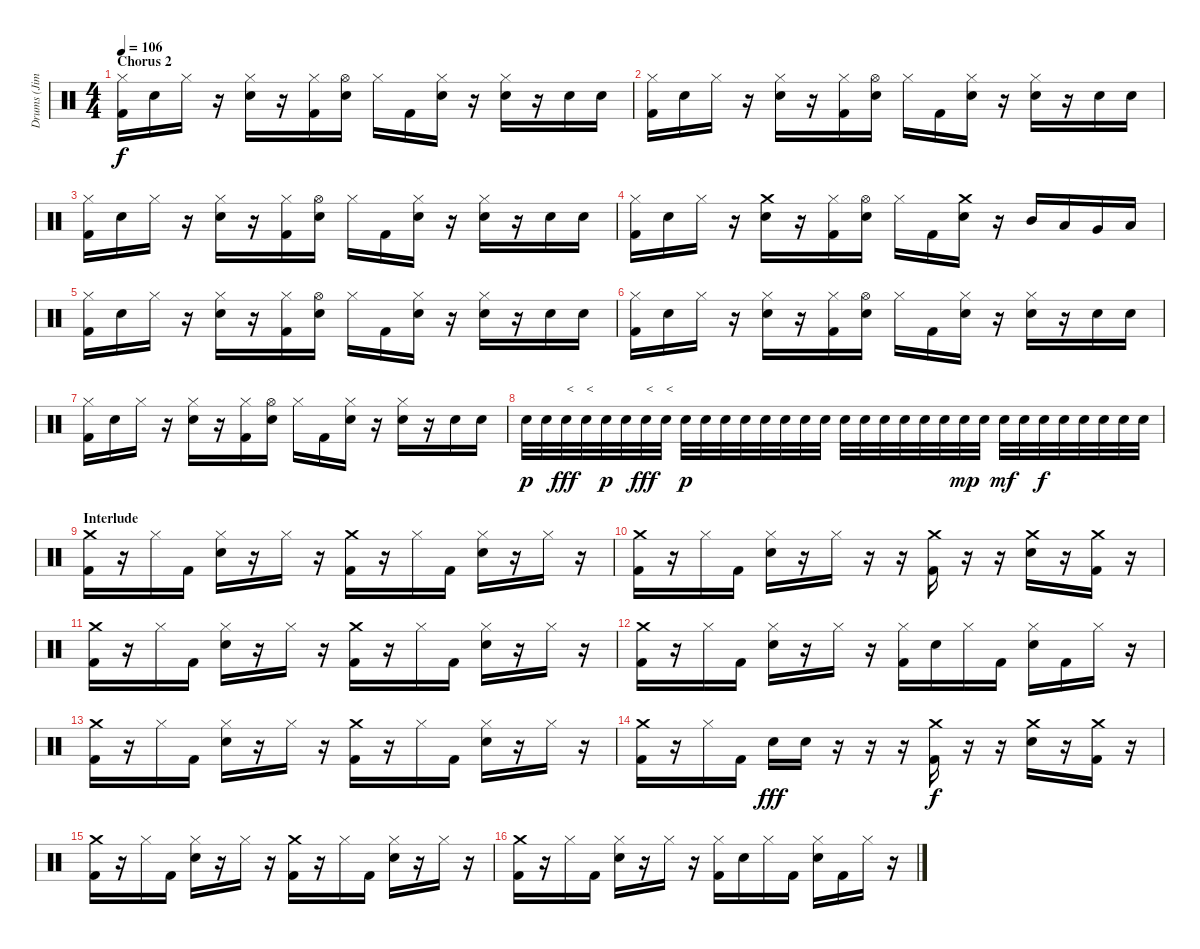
\track ("Drums (Jimmy)" "Drums (Jim") {instrument percussion}
\staff {score}
\articulation defaults
\ts (4 4)
\section ("" "Chorus 2")
\tempo 106
\clef neutral
\ks c
("Hi-Hat (closed)" "Kick (hit) 2").16{dy f} "Snare (hit) 2".16 "Hi-Hat (closed)".16 r.16 ("Hi-Hat (closed)" "Snare (hit) 2").16 r.16 ("Hi-Hat (closed)" "Kick (hit) 2").16 ("Hi-Hat (open)" "Snare (hit) 2").16 "Hi-Hat (closed)".16 "Kick (hit) 2".16 ("Hi-Hat (closed)" "Snare (hit) 2").16 r.16 ("Hi-Hat (closed)" "Snare (hit) 2").16 r.16 "Snare (hit) 2".16 "Snare (hit) 2".16 |
("Hi-Hat (closed)" "Kick (hit) 2").16 "Snare (hit) 2".16 "Hi-Hat (closed)".16 r.16 ("Hi-Hat (closed)" "Snare (hit) 2").16 r.16 ("Hi-Hat (closed)" "Kick (hit) 2").16 ("Hi-Hat (open)" "Snare (hit) 2").16 "Hi-Hat (closed)".16 "Kick (hit) 2".16 ("Hi-Hat (closed)" "Snare (hit) 2").16 r.16 ("Hi-Hat (closed)" "Snare (hit) 2").16 r.16 "Snare (hit) 2".16 "Snare (hit) 2".16 |
("Hi-Hat (closed)" "Kick (hit) 2").16 "Snare (hit) 2".16 "Hi-Hat (closed)".16 r.16 ("Hi-Hat (closed)" "Snare (hit) 2").16 r.16 ("Hi-Hat (closed)" "Kick (hit) 2").16 ("Hi-Hat (open)" "Snare (hit) 2").16 "Hi-Hat (closed)".16 "Kick (hit) 2".16 ("Hi-Hat (closed)" "Snare (hit) 2").16 r.16 ("Hi-Hat (closed)" "Snare (hit) 2").16 r.16 "Snare (hit) 2".16 "Snare (hit) 2".16 |
("Hi-Hat (closed)" "Kick (hit) 2").16 "Snare (hit) 2".16 "Hi-Hat (closed)".16 r.16 ("Crash medium (hit)" "Snare (hit) 2").16 r.16 ("Hi-Hat (closed)" "Kick (hit) 2").16 ("Hi-Hat (open)" "Snare (hit) 2").16 "Hi-Hat (closed)".16 "Kick (hit) 2".16 ("Crash medium (hit)" "Snare (hit) 2").16 r.16 "Mid Tom (hit)".16 "Low Tom (hit)".16 "Very Low Tom (hit)".16 "Low Floor Tom (hit)".16 |
("Hi-Hat (closed)" "Kick (hit) 2").16 "Snare (hit) 2".16 "Hi-Hat (closed)".16 r.16 ("Hi-Hat (closed)" "Snare (hit) 2").16 r.16 ("Hi-Hat (closed)" "Kick (hit) 2").16 ("Hi-Hat (open)" "Snare (hit) 2").16 "Hi-Hat (closed)".16 "Kick (hit) 2".16 ("Hi-Hat (closed)" "Snare (hit) 2").16 r.16 ("Hi-Hat (closed)" "Snare (hit) 2").16 r.16 "Snare (hit) 2".16 "Snare (hit) 2".16 |
("Hi-Hat (closed)" "Kick (hit) 2").16 "Snare (hit) 2".16 "Hi-Hat (closed)".16 r.16 ("Hi-Hat (closed)" "Snare (hit) 2").16 r.16 ("Hi-Hat (closed)" "Kick (hit) 2").16 ("Hi-Hat (open)" "Snare (hit) 2").16 "Hi-Hat (closed)".16 "Kick (hit) 2".16 ("Hi-Hat (closed)" "Snare (hit) 2").16 r.16 ("Hi-Hat (closed)" "Snare (hit) 2").16 r.16 "Snare (hit) 2".16 "Snare (hit) 2".16 |
("Hi-Hat (closed)" "Kick (hit) 2").16 "Snare (hit) 2".16 "Hi-Hat (closed)".16 r.16 ("Hi-Hat (closed)" "Snare (hit) 2").16 r.16 ("Hi-Hat (closed)" "Kick (hit) 2").16 ("Hi-Hat (open)" "Snare (hit) 2").16 "Hi-Hat (closed)".16 "Kick (hit) 2".16 ("Hi-Hat (closed)" "Snare (hit) 2").16 r.16 ("Hi-Hat (closed)" "Snare (hit) 2").16 r.16 "Snare (hit) 2".16 "Snare (hit) 2".16 |
"Snare (hit) 2".32{dy p} "Snare (hit) 2".32 "Snare (hit) 2".32{txt "<" dy fff} "Snare (hit) 2".32{txt "<"} "Snare (hit) 2".32{dy p} "Snare (hit) 2".32 "Snare (hit) 2".32{txt "<" dy fff} "Snare (hit) 2".32{txt "<"} "Snare (hit) 2".32{dy p} "Snare (hit) 2".32 "Snare (hit) 2".32 "Snare (hit) 2".32 "Snare (hit) 2".32 "Snare (hit) 2".32 "Snare (hit) 2".32 "Snare (hit) 2".32 "Snare (hit) 2".32 "Snare (hit) 2".32 "Snare (hit) 2".32 "Snare (hit) 2".32 "Snare (hit) 2".32 "Snare (hit) 2".32 "Snare (hit) 2".32{dy mp} "Snare (hit) 2".32 "Snare (hit) 2".32{dy mf} "Snare (hit) 2".32 "Snare (hit) 2".32{dy f} "Snare (hit) 2".32 "Snare (hit) 2".32 "Snare (hit) 2".32 "Snare (hit) 2".32 "Snare (hit) 2".32 |
\section ("" "Interlude")
("Crash medium (hit)" "Kick (hit) 2").16 r.16 "Hi-Hat (closed)".16 "Kick (hit) 2".16 ("Hi-Hat (closed)" "Snare (hit) 2").16 r.16 "Hi-Hat (closed)".16 r.16 ("Crash medium (hit)" "Kick (hit) 2").16 r.16 "Hi-Hat (closed)".16 "Kick (hit) 2".16 ("Hi-Hat (closed)" "Snare (hit) 2").16 r.16 "Hi-Hat (closed)".16 r.16 |
("Crash medium (hit)" "Kick (hit) 2").16 r.16 "Hi-Hat (closed)".16 "Kick (hit) 2".16 ("Hi-Hat (closed)" "Snare (hit) 2").16 r.16 "Hi-Hat (closed)".16 r.16 r.16 ("Crash medium (hit)" "Kick (hit) 2").16 r.16 r.16 ("Crash medium (hit)" "Snare (hit) 2").16 r.16 ("Crash medium (hit)" "Kick (hit) 2").16 r.16 |
("Crash medium (hit)" "Kick (hit) 2").16 r.16 "Hi-Hat (closed)".16 "Kick (hit) 2".16 ("Hi-Hat (closed)" "Snare (hit) 2").16 r.16 "Hi-Hat (closed)".16 r.16 ("Crash medium (hit)" "Kick (hit) 2").16 r.16 "Hi-Hat (closed)".16 "Kick (hit) 2".16 ("Hi-Hat (closed)" "Snare (hit) 2").16 r.16 "Hi-Hat (closed)".16 r.16 |
("Crash medium (hit)" "Kick (hit) 2").16 r.16 "Hi-Hat (closed)".16 "Kick (hit) 2".16 ("Hi-Hat (closed)" "Snare (hit) 2").16 r.16 "Hi-Hat (closed)".16 r.16 ("Hi-Hat (closed)" "Kick (hit) 2").16 "Snare (hit) 2".16 "Hi-Hat (closed)".16 "Kick (hit) 2".16 ("Hi-Hat (closed)" "Snare (hit) 2").16 "Kick (hit) 2".16 "Hi-Hat (closed)".16 r.16 |
("Crash medium (hit)" "Kick (hit) 2").16 r.16 "Hi-Hat (closed)".16 "Kick (hit) 2".16 ("Hi-Hat (closed)" "Snare (hit) 2").16 r.16 "Hi-Hat (closed)".16 r.16 ("Crash medium (hit)" "Kick (hit) 2").16 r.16 "Hi-Hat (closed)".16 "Kick (hit) 2".16 ("Hi-Hat (closed)" "Snare (hit) 2").16 r.16 "Hi-Hat (closed)".16 r.16 |
("Crash medium (hit)" "Kick (hit) 2").16 r.16 "Hi-Hat (closed)".16 "Kick (hit) 2".16 "Snare (hit) 2".16{dy fff} "Snare (hit) 2".16 r.16 r.16 r.16 ("Crash medium (hit)" "Kick (hit) 2").16{dy f} r.16 r.16 ("Crash medium (hit)" "Snare (hit) 2").16 r.16 ("Crash medium (hit)" "Kick (hit) 2").16 r.16 |
("Crash medium (hit)" "Kick (hit) 2").16 r.16 "Hi-Hat (closed)".16 "Kick (hit) 2".16 ("Hi-Hat (closed)" "Snare (hit) 2").16 r.16 "Hi-Hat (closed)".16 r.16 ("Crash medium (hit)" "Kick (hit) 2").16 r.16 "Hi-Hat (closed)".16 "Kick (hit) 2".16 ("Hi-Hat (closed)" "Snare (hit) 2").16 r.16 "Hi-Hat (closed)".16 r.16 |
("Crash medium (hit)" "Kick (hit) 2").16 r.16 "Hi-Hat (closed)".16 "Kick (hit) 2".16 ("Hi-Hat (closed)" "Snare (hit) 2").16 r.16 "Hi-Hat (closed)".16 r.16 ("Hi-Hat (closed)" "Kick (hit) 2").16 "Snare (hit) 2".16 "Hi-Hat (closed)".16 "Kick (hit) 2".16 ("Hi-Hat (closed)" "Snare (hit) 2").16 "Kick (hit) 2".16 "Hi-Hat (closed)".16 r.16
